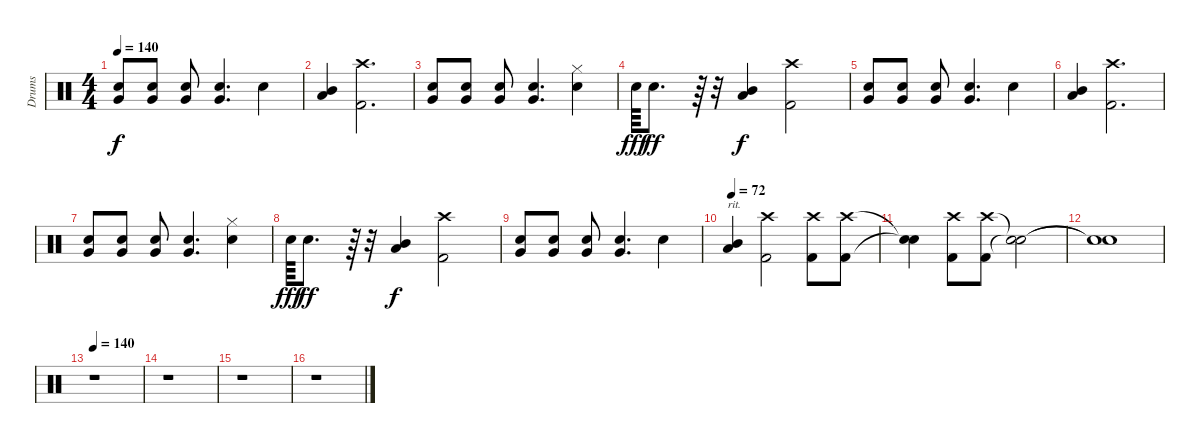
\track ("Drums" "Drums") {instrument percussion}
\staff {score}
\articulation defaults
\ts (4 4)
\tempo 140
\clef neutral
\ks c
("Very Low Tom (hit)" "Snare (hit) 2").8{dy f} ("Very Low Tom (hit)" "Snare (hit) 2").8 ("Very Low Tom (hit)" "Snare (hit) 2").8 ("Very Low Tom (hit)" "Snare (hit) 2").4{d} "Snare (hit) 2".4 |
("Mid Tom (hit)" "Low Tom (hit)").4 ("Crash high (hit)" "Kick (hit) 2").2{d} |
("Very Low Tom (hit)" "Snare (hit) 2").8 ("Very Low Tom (hit)" "Snare (hit) 2").8 ("Very Low Tom (hit)" "Snare (hit) 2").8 ("Very Low Tom (hit)" "Snare (hit) 2").4{d} ("Hi-Hat (closed)" "Snare (hit) 2").4 |
"Snare (hit) 2".64{dy fff} "Snare (hit) 2".8{d dy ff} r.64 r.32 ("Mid Tom (hit)" "Low Tom (hit)").4{dy f} ("Crash high (hit)" "Kick (hit) 2").2 |
("Very Low Tom (hit)" "Snare (hit) 2").8 ("Very Low Tom (hit)" "Snare (hit) 2").8 ("Very Low Tom (hit)" "Snare (hit) 2").8 ("Very Low Tom (hit)" "Snare (hit) 2").4{d} "Snare (hit) 2".4 |
("Mid Tom (hit)" "Low Tom (hit)").4 ("Crash high (hit)" "Kick (hit) 2").2{d} |
("Very Low Tom (hit)" "Snare (hit) 2").8 ("Very Low Tom (hit)" "Snare (hit) 2").8 ("Very Low Tom (hit)" "Snare (hit) 2").8 ("Very Low Tom (hit)" "Snare (hit) 2").4{d} ("Hi-Hat (closed)" "Snare (hit) 2").4 |
"Snare (hit) 2".64{dy fff} "Snare (hit) 2".8{d dy ff} r.64 r.32 ("Mid Tom (hit)" "Low Tom (hit)").4{dy f} ("Crash high (hit)" "Kick (hit) 2").2 |
("Very Low Tom (hit)" "Snare (hit) 2").8 ("Very Low Tom (hit)" "Snare (hit) 2").8 ("Very Low Tom (hit)" "Snare (hit) 2").8 ("Very Low Tom (hit)" "Snare (hit) 2").4{d} "Snare (hit) 2".4 |
\tempo 72
("Mid Tom (hit)" "Low Tom (hit)").4{txt "rit."} ("Crash high (hit)" "Kick (hit) 2").2 ("Crash high (hit)" "Kick (hit) 2").8 ("Crash high (hit)" "Kick (hit) 2").8 |
("Snare (hit)"{t} "Snare (hit)"{t}).4 ("Crash high (hit)" "Kick (hit) 2").8 ("Crash high (hit)" "Kick (hit) 2").8 ("Snare (hit)"{t} "Snare (hit)"{t}).2 |
("Snare (hit)"{t} "Snare (hit)"{t}).1 |
\tempo 140
r.1 |
r.1 |
r.1 |
r.1
